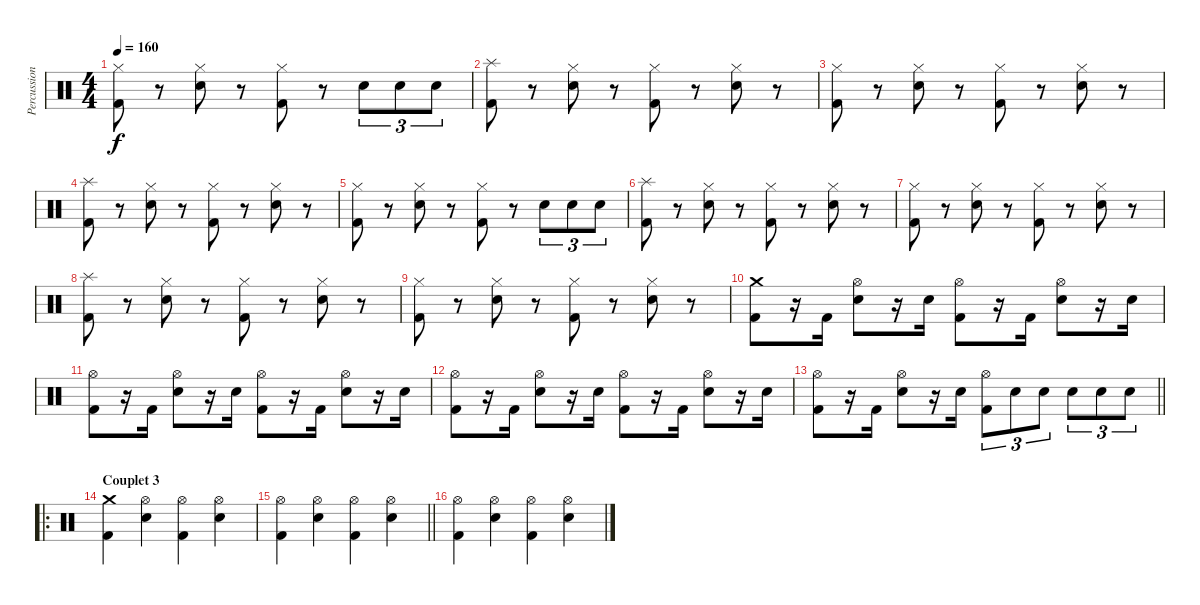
\track ("Percussions" "Percussion") {instrument percussion}
\staff
\articulation defaults
\ts (4 4)
\tempo 160
\clef neutral
\ks c
("Hi-Hat (closed)" "Kick (hit) 2").8{dy f} r.8 ("Hi-Hat (closed)" "Electric Snare (hit)").8 r.8 ("Hi-Hat (closed)" "Kick (hit) 2").8 r.8 "Electric Snare (hit)".8{tu (3 2)} "Electric Snare (hit)".8{tu (3 2)} "Electric Snare (hit)".8{tu (3 2)} |
("Splash (hit)" "Kick (hit) 2").8 r.8 ("Hi-Hat (closed)" "Electric Snare (hit)").8 r.8 ("Hi-Hat (closed)" "Kick (hit) 2").8 r.8 ("Hi-Hat (closed)" "Electric Snare (hit)").8 r.8 |
("Hi-Hat (closed)" "Kick (hit) 2").8 r.8 ("Hi-Hat (closed)" "Electric Snare (hit)").8 r.8 ("Hi-Hat (closed)" "Kick (hit) 2").8 r.8 ("Hi-Hat (closed)" "Electric Snare (hit)").8 r.8 |
("Splash (hit)" "Kick (hit) 2").8 r.8 ("Hi-Hat (closed)" "Electric Snare (hit)").8 r.8 ("Hi-Hat (closed)" "Kick (hit) 2").8 r.8 ("Hi-Hat (closed)" "Electric Snare (hit)").8 r.8 |
("Hi-Hat (closed)" "Kick (hit) 2").8 r.8 ("Hi-Hat (closed)" "Electric Snare (hit)").8 r.8 ("Hi-Hat (closed)" "Kick (hit) 2").8 r.8 "Electric Snare (hit)".8{tu (3 2)} "Electric Snare (hit)".8{tu (3 2)} "Electric Snare (hit)".8{tu (3 2)} |
("Splash (hit)" "Kick (hit) 2").8 r.8 ("Hi-Hat (closed)" "Electric Snare (hit)").8 r.8 ("Hi-Hat (closed)" "Kick (hit) 2").8 r.8 ("Hi-Hat (closed)" "Electric Snare (hit)").8 r.8 |
("Hi-Hat (closed)" "Kick (hit) 2").8 r.8 ("Hi-Hat (closed)" "Electric Snare (hit)").8 r.8 ("Hi-Hat (closed)" "Kick (hit) 2").8 r.8 ("Hi-Hat (closed)" "Electric Snare (hit)").8 r.8 |
("Splash (hit)" "Kick (hit) 2").8 r.8 ("Hi-Hat (closed)" "Electric Snare (hit)").8 r.8 ("Hi-Hat (closed)" "Kick (hit) 2").8 r.8 ("Hi-Hat (closed)" "Electric Snare (hit)").8 r.8 |
("Hi-Hat (closed)" "Kick (hit) 2").8 r.8 ("Hi-Hat (closed)" "Electric Snare (hit)").8 r.8 ("Hi-Hat (closed)" "Kick (hit) 2").8 r.8 ("Hi-Hat (closed)" "Electric Snare (hit)").8 r.8 |
("Crash medium (hit)" "Kick (hit) 2").8 r.16 "Kick (hit) 2".16 ("Hi-Hat (open)" "Electric Snare (hit)").8 r.16 "Electric Snare (hit)".16 ("Hi-Hat (open)" "Kick (hit) 2").8 r.16 "Kick (hit) 2".16 ("Hi-Hat (open)" "Electric Snare (hit)").8 r.16 "Electric Snare (hit)".16 |
("Hi-Hat (open)" "Kick (hit) 2").8 r.16 "Kick (hit) 2".16 ("Hi-Hat (open)" "Electric Snare (hit)").8 r.16 "Electric Snare (hit)".16 ("Hi-Hat (open)" "Kick (hit) 2").8 r.16 "Kick (hit) 2".16 ("Hi-Hat (open)" "Electric Snare (hit)").8 r.16 "Electric Snare (hit)".16 |
("Hi-Hat (open)" "Kick (hit) 2").8 r.16 "Kick (hit) 2".16 ("Hi-Hat (open)" "Electric Snare (hit)").8 r.16 "Electric Snare (hit)".16 ("Hi-Hat (open)" "Kick (hit) 2").8 r.16 "Kick (hit) 2".16 ("Hi-Hat (open)" "Electric Snare (hit)").8 r.16 "Electric Snare (hit)".16 |
\barLineRight lightlight
("Hi-Hat (open)" "Kick (hit) 2").8 r.16 "Kick (hit) 2".16 ("Hi-Hat (open)" "Electric Snare (hit)").8 r.16 "Electric Snare (hit)".16 ("Hi-Hat (open)" "Kick (hit) 2").8{tu (3 2)} "Electric Snare (hit)".8{tu (3 2)} "Electric Snare (hit)".8{tu (3 2)} "Electric Snare (hit)".8{tu (3 2)} "Electric Snare (hit)".8{tu (3 2)} "Electric Snare (hit)".8{tu (3 2)} |
\ro
\section ("" "Couplet 3")
("Crash medium (hit)" "Kick (hit) 2").4 ("Hi-Hat (open)" "Electric Snare (hit)").4 ("Hi-Hat (open)" "Kick (hit) 2").4 ("Hi-Hat (open)" "Electric Snare (hit)").4 |
\barLineRight lightlight
("Hi-Hat (open)" "Kick (hit) 2").4 ("Hi-Hat (open)" "Electric Snare (hit)").4 ("Hi-Hat (open)" "Kick (hit) 2").4 ("Hi-Hat (open)" "Electric Snare (hit)").4 |
("Hi-Hat (open)" "Kick (hit) 2").4 ("Hi-Hat (open)" "Electric Snare (hit)").4 ("Hi-Hat (open)" "Kick (hit) 2").4 ("Hi-Hat (open)" "Electric Snare (hit)").4
